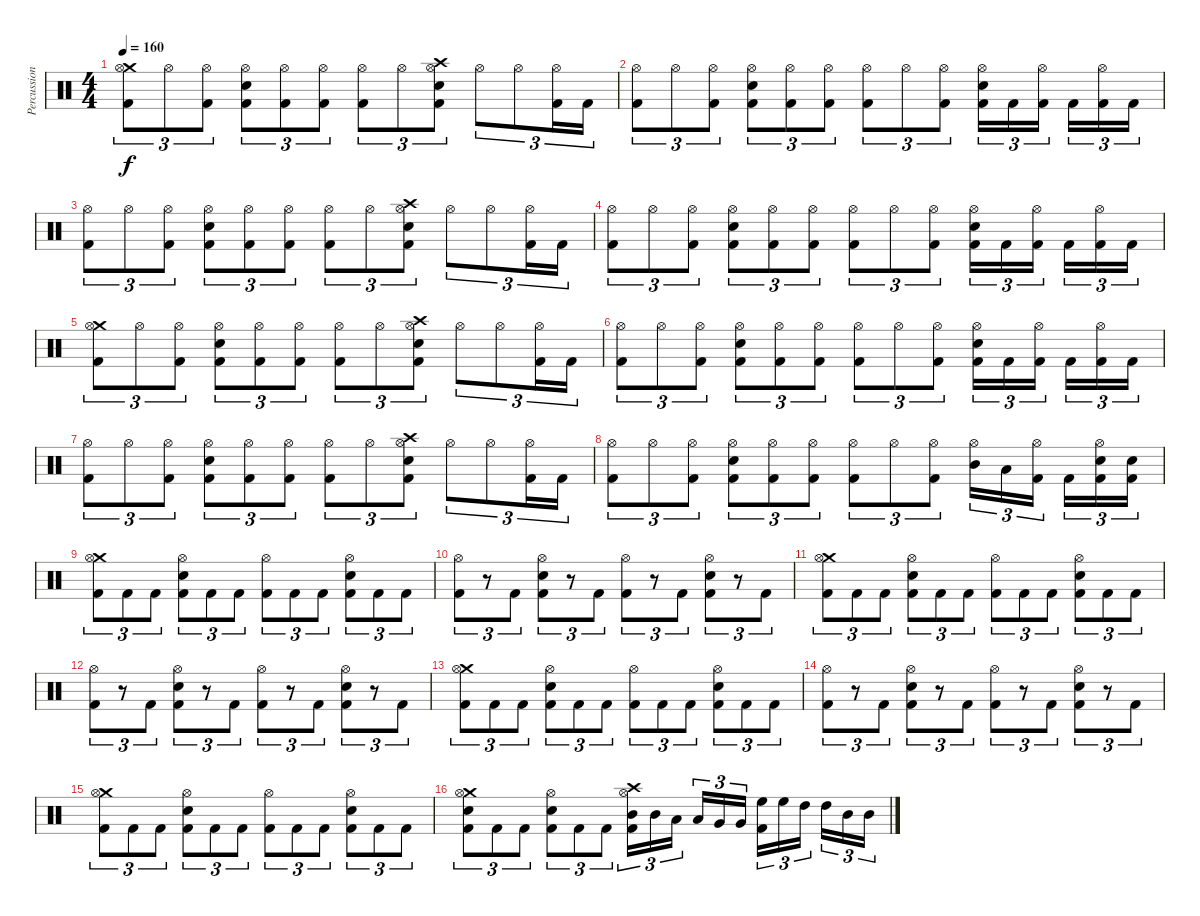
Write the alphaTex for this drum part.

\track ("Percussion" "Percussion") {instrument percussion}
\staff {score}
\articulation defaults
\ts (4 4)
\tempo 160
\clef neutral
\ks c
("Crash medium (hit)" "Hi-Hat (open)" "Kick (hit) 2").8{tu (3 2) dy f} "Hi-Hat (open)".8{tu (3 2)} ("Hi-Hat (open)" "Kick (hit) 2").8{tu (3 2)} ("Hi-Hat (open)" "Electric Snare (hit)" "Kick (hit) 2").8{tu (3 2)} ("Hi-Hat (open)" "Kick (hit) 2").8{tu (3 2)} ("Hi-Hat (open)" "Kick (hit) 2").8{tu (3 2)} ("Hi-Hat (open)" "Kick (hit) 2").8{tu (3 2)} "Hi-Hat (open)".8{tu (3 2)} ("Crash high (hit)" "Hi-Hat (open)" "Electric Snare (hit)" "Kick (hit) 2").8{tu (3 2)} "Hi-Hat (open)".8{tu (3 2)} "Hi-Hat (open)".8{tu (3 2)} ("Hi-Hat (open)" "Kick (hit) 2").16{tu (3 2)} "Kick (hit) 2".16{tu (3 2)} |
("Hi-Hat (open)" "Kick (hit) 2").8{tu (3 2)} "Hi-Hat (open)".8{tu (3 2)} ("Hi-Hat (open)" "Kick (hit) 2").8{tu (3 2)} ("Hi-Hat (open)" "Electric Snare (hit)" "Kick (hit) 2").8{tu (3 2)} ("Hi-Hat (open)" "Kick (hit) 2").8{tu (3 2)} ("Hi-Hat (open)" "Kick (hit) 2").8{tu (3 2)} ("Hi-Hat (open)" "Kick (hit) 2").8{tu (3 2)} "Hi-Hat (open)".8{tu (3 2)} ("Hi-Hat (open)" "Kick (hit) 2").8{tu (3 2)} ("Hi-Hat (open)" "Electric Snare (hit)" "Kick (hit) 2").16{tu (3 2)} "Kick (hit) 2".16{tu (3 2)} ("Hi-Hat (open)" "Kick (hit) 2").16{tu (3 2)} "Kick (hit) 2".16{tu (3 2)} ("Hi-Hat (open)" "Kick (hit) 2").16{tu (3 2)} "Kick (hit) 2".16{tu (3 2)} |
("Hi-Hat (open)" "Kick (hit) 2").8{tu (3 2)} "Hi-Hat (open)".8{tu (3 2)} ("Hi-Hat (open)" "Kick (hit) 2").8{tu (3 2)} ("Hi-Hat (open)" "Electric Snare (hit)" "Kick (hit) 2").8{tu (3 2)} ("Hi-Hat (open)" "Kick (hit) 2").8{tu (3 2)} ("Hi-Hat (open)" "Kick (hit) 2").8{tu (3 2)} ("Hi-Hat (open)" "Kick (hit) 2").8{tu (3 2)} "Hi-Hat (open)".8{tu (3 2)} ("Crash high (hit)" "Hi-Hat (open)" "Electric Snare (hit)" "Kick (hit) 2").8{tu (3 2)} "Hi-Hat (open)".8{tu (3 2)} "Hi-Hat (open)".8{tu (3 2)} ("Hi-Hat (open)" "Kick (hit) 2").16{tu (3 2)} "Kick (hit) 2".16{tu (3 2)} |
("Hi-Hat (open)" "Kick (hit) 2").8{tu (3 2)} "Hi-Hat (open)".8{tu (3 2)} ("Hi-Hat (open)" "Kick (hit) 2").8{tu (3 2)} ("Hi-Hat (open)" "Electric Snare (hit)" "Kick (hit) 2").8{tu (3 2)} ("Hi-Hat (open)" "Kick (hit) 2").8{tu (3 2)} ("Hi-Hat (open)" "Kick (hit) 2").8{tu (3 2)} ("Hi-Hat (open)" "Kick (hit) 2").8{tu (3 2)} "Hi-Hat (open)".8{tu (3 2)} ("Hi-Hat (open)" "Kick (hit) 2").8{tu (3 2)} ("Hi-Hat (open)" "Electric Snare (hit)" "Kick (hit) 2").16{tu (3 2)} "Kick (hit) 2".16{tu (3 2)} ("Hi-Hat (open)" "Kick (hit) 2").16{tu (3 2)} "Kick (hit) 2".16{tu (3 2)} ("Hi-Hat (open)" "Kick (hit) 2").16{tu (3 2)} "Kick (hit) 2".16{tu (3 2)} |
("Crash medium (hit)" "Hi-Hat (open)" "Kick (hit) 2").8{tu (3 2)} "Hi-Hat (open)".8{tu (3 2)} ("Hi-Hat (open)" "Kick (hit) 2").8{tu (3 2)} ("Hi-Hat (open)" "Electric Snare (hit)" "Kick (hit) 2").8{tu (3 2)} ("Hi-Hat (open)" "Kick (hit) 2").8{tu (3 2)} ("Hi-Hat (open)" "Kick (hit) 2").8{tu (3 2)} ("Hi-Hat (open)" "Kick (hit) 2").8{tu (3 2)} "Hi-Hat (open)".8{tu (3 2)} ("Crash high (hit)" "Hi-Hat (open)" "Electric Snare (hit)" "Kick (hit) 2").8{tu (3 2)} "Hi-Hat (open)".8{tu (3 2)} "Hi-Hat (open)".8{tu (3 2)} ("Hi-Hat (open)" "Kick (hit) 2").16{tu (3 2)} "Kick (hit) 2".16{tu (3 2)} |
("Hi-Hat (open)" "Kick (hit) 2").8{tu (3 2)} "Hi-Hat (open)".8{tu (3 2)} ("Hi-Hat (open)" "Kick (hit) 2").8{tu (3 2)} ("Hi-Hat (open)" "Electric Snare (hit)" "Kick (hit) 2").8{tu (3 2)} ("Hi-Hat (open)" "Kick (hit) 2").8{tu (3 2)} ("Hi-Hat (open)" "Kick (hit) 2").8{tu (3 2)} ("Hi-Hat (open)" "Kick (hit) 2").8{tu (3 2)} "Hi-Hat (open)".8{tu (3 2)} ("Hi-Hat (open)" "Kick (hit) 2").8{tu (3 2)} ("Hi-Hat (open)" "Electric Snare (hit)" "Kick (hit) 2").16{tu (3 2)} "Kick (hit) 2".16{tu (3 2)} ("Hi-Hat (open)" "Kick (hit) 2").16{tu (3 2)} "Kick (hit) 2".16{tu (3 2)} ("Hi-Hat (open)" "Kick (hit) 2").16{tu (3 2)} "Kick (hit) 2".16{tu (3 2)} |
("Hi-Hat (open)" "Kick (hit) 2").8{tu (3 2)} "Hi-Hat (open)".8{tu (3 2)} ("Hi-Hat (open)" "Kick (hit) 2").8{tu (3 2)} ("Hi-Hat (open)" "Electric Snare (hit)" "Kick (hit) 2").8{tu (3 2)} ("Hi-Hat (open)" "Kick (hit) 2").8{tu (3 2)} ("Hi-Hat (open)" "Kick (hit) 2").8{tu (3 2)} ("Hi-Hat (open)" "Kick (hit) 2").8{tu (3 2)} "Hi-Hat (open)".8{tu (3 2)} ("Crash high (hit)" "Hi-Hat (open)" "Electric Snare (hit)" "Kick (hit) 2").8{tu (3 2)} "Hi-Hat (open)".8{tu (3 2)} "Hi-Hat (open)".8{tu (3 2)} ("Hi-Hat (open)" "Kick (hit) 2").16{tu (3 2)} "Kick (hit) 2".16{tu (3 2)} |
("Hi-Hat (open)" "Kick (hit) 2").8{tu (3 2)} "Hi-Hat (open)".8{tu (3 2)} ("Hi-Hat (open)" "Kick (hit) 2").8{tu (3 2)} ("Hi-Hat (open)" "Electric Snare (hit)" "Kick (hit) 2").8{tu (3 2)} ("Hi-Hat (open)" "Kick (hit) 2").8{tu (3 2)} ("Hi-Hat (open)" "Kick (hit) 2").8{tu (3 2)} ("Hi-Hat (open)" "Kick (hit) 2").8{tu (3 2)} "Hi-Hat (open)".8{tu (3 2)} ("Hi-Hat (open)" "Kick (hit) 2").8{tu (3 2)} ("Hi-Hat (open)" "Mid Tom (hit)").16{tu (3 2)} "Low Tom (hit)".16{tu (3 2)} ("Hi-Hat (open)" "Kick (hit) 2").16{tu (3 2)} "Kick (hit) 2".16{tu (3 2)} ("Hi-Hat (open)" "Electric Snare (hit)" "Kick (hit) 2").16{tu (3 2)} ("Electric Snare (hit)" "Kick (hit) 2").16{tu (3 2)} |
("Crash medium (hit)" "Hi-Hat (open)" "Kick (hit) 2").8{tu (3 2)} "Kick (hit) 2".8{tu (3 2)} "Kick (hit) 2".8{tu (3 2)} ("Hi-Hat (open)" "Electric Snare (hit)" "Kick (hit) 2").8{tu (3 2)} "Kick (hit) 2".8{tu (3 2)} "Kick (hit) 2".8{tu (3 2)} ("Hi-Hat (open)" "Kick (hit) 2").8{tu (3 2)} "Kick (hit) 2".8{tu (3 2)} "Kick (hit) 2".8{tu (3 2)} ("Hi-Hat (open)" "Electric Snare (hit)" "Kick (hit) 2").8{tu (3 2)} "Kick (hit) 2".8{tu (3 2)} "Kick (hit) 2".8{tu (3 2)} |
("Hi-Hat (open)" "Kick (hit) 2").8{tu (3 2)} r.8{tu (3 2)} "Kick (hit) 2".8{tu (3 2)} ("Hi-Hat (open)" "Electric Snare (hit)" "Kick (hit) 2").8{tu (3 2)} r.8{tu (3 2)} "Kick (hit) 2".8{tu (3 2)} ("Hi-Hat (open)" "Kick (hit) 2").8{tu (3 2)} r.8{tu (3 2)} "Kick (hit) 2".8{tu (3 2)} ("Hi-Hat (open)" "Electric Snare (hit)" "Kick (hit) 2").8{tu (3 2)} r.8{tu (3 2)} "Kick (hit) 2".8{tu (3 2)} |
("Crash medium (hit)" "Hi-Hat (open)" "Kick (hit) 2").8{tu (3 2)} "Kick (hit) 2".8{tu (3 2)} "Kick (hit) 2".8{tu (3 2)} ("Hi-Hat (open)" "Electric Snare (hit)" "Kick (hit) 2").8{tu (3 2)} "Kick (hit) 2".8{tu (3 2)} "Kick (hit) 2".8{tu (3 2)} ("Hi-Hat (open)" "Kick (hit) 2").8{tu (3 2)} "Kick (hit) 2".8{tu (3 2)} "Kick (hit) 2".8{tu (3 2)} ("Hi-Hat (open)" "Electric Snare (hit)" "Kick (hit) 2").8{tu (3 2)} "Kick (hit) 2".8{tu (3 2)} "Kick (hit) 2".8{tu (3 2)} |
("Hi-Hat (open)" "Kick (hit) 2").8{tu (3 2)} r.8{tu (3 2)} "Kick (hit) 2".8{tu (3 2)} ("Hi-Hat (open)" "Electric Snare (hit)" "Kick (hit) 2").8{tu (3 2)} r.8{tu (3 2)} "Kick (hit) 2".8{tu (3 2)} ("Hi-Hat (open)" "Kick (hit) 2").8{tu (3 2)} r.8{tu (3 2)} "Kick (hit) 2".8{tu (3 2)} ("Hi-Hat (open)" "Electric Snare (hit)" "Kick (hit) 2").8{tu (3 2)} r.8{tu (3 2)} "Kick (hit) 2".8{tu (3 2)} |
("Crash medium (hit)" "Hi-Hat (open)" "Kick (hit) 2").8{tu (3 2)} "Kick (hit) 2".8{tu (3 2)} "Kick (hit) 2".8{tu (3 2)} ("Hi-Hat (open)" "Electric Snare (hit)" "Kick (hit) 2").8{tu (3 2)} "Kick (hit) 2".8{tu (3 2)} "Kick (hit) 2".8{tu (3 2)} ("Hi-Hat (open)" "Kick (hit) 2").8{tu (3 2)} "Kick (hit) 2".8{tu (3 2)} "Kick (hit) 2".8{tu (3 2)} ("Hi-Hat (open)" "Electric Snare (hit)" "Kick (hit) 2").8{tu (3 2)} "Kick (hit) 2".8{tu (3 2)} "Kick (hit) 2".8{tu (3 2)} |
("Hi-Hat (open)" "Kick (hit) 2").8{tu (3 2)} r.8{tu (3 2)} "Kick (hit) 2".8{tu (3 2)} ("Hi-Hat (open)" "Electric Snare (hit)" "Kick (hit) 2").8{tu (3 2)} r.8{tu (3 2)} "Kick (hit) 2".8{tu (3 2)} ("Hi-Hat (open)" "Kick (hit) 2").8{tu (3 2)} r.8{tu (3 2)} "Kick (hit) 2".8{tu (3 2)} ("Hi-Hat (open)" "Electric Snare (hit)" "Kick (hit) 2").8{tu (3 2)} r.8{tu (3 2)} "Kick (hit) 2".8{tu (3 2)} |
("Crash medium (hit)" "Hi-Hat (open)" "Kick (hit) 2").8{tu (3 2)} "Kick (hit) 2".8{tu (3 2)} "Kick (hit) 2".8{tu (3 2)} ("Hi-Hat (open)" "Electric Snare (hit)" "Kick (hit) 2").8{tu (3 2)} "Kick (hit) 2".8{tu (3 2)} "Kick (hit) 2".8{tu (3 2)} ("Hi-Hat (open)" "Kick (hit) 2").8{tu (3 2)} "Kick (hit) 2".8{tu (3 2)} "Kick (hit) 2".8{tu (3 2)} ("Hi-Hat (open)" "Electric Snare (hit)" "Kick (hit) 2").8{tu (3 2)} "Kick (hit) 2".8{tu (3 2)} "Kick (hit) 2".8{tu (3 2)} |
("Crash medium (hit)" "Hi-Hat (open)" "Electric Snare (hit)" "Kick (hit) 2").8{tu (3 2)} "Kick (hit) 2".8{tu (3 2)} "Kick (hit) 2".8{tu (3 2)} ("Hi-Hat (open)" "Electric Snare (hit)" "Kick (hit) 2").8{tu (3 2)} "Kick (hit) 2".8{tu (3 2)} "Kick (hit) 2".8{tu (3 2)} ("Crash high (hit)" "Hi-Hat (open)" "Mid Tom (hit)" "Kick (hit) 2").16{tu (3 2)} "Mid Tom (hit)".16{tu (3 2)} "Low Tom (hit)".16{tu (3 2)} "Low Tom (hit)".16{tu (3 2)} "Very Low Tom (hit)".16{tu (3 2)} "Very Low Tom (hit)".16{tu (3 2)} ("High Floor Tom (hit)" "Kick (hit) 2").16{tu (3 2)} "High Floor Tom (hit)".16{tu (3 2)} "High Tom (hit)".16{tu (3 2)} "High Tom (hit)".16{tu (3 2)} "Mid Tom (hit)".16{tu (3 2)} "Mid Tom (hit)".16{tu (3 2)}
